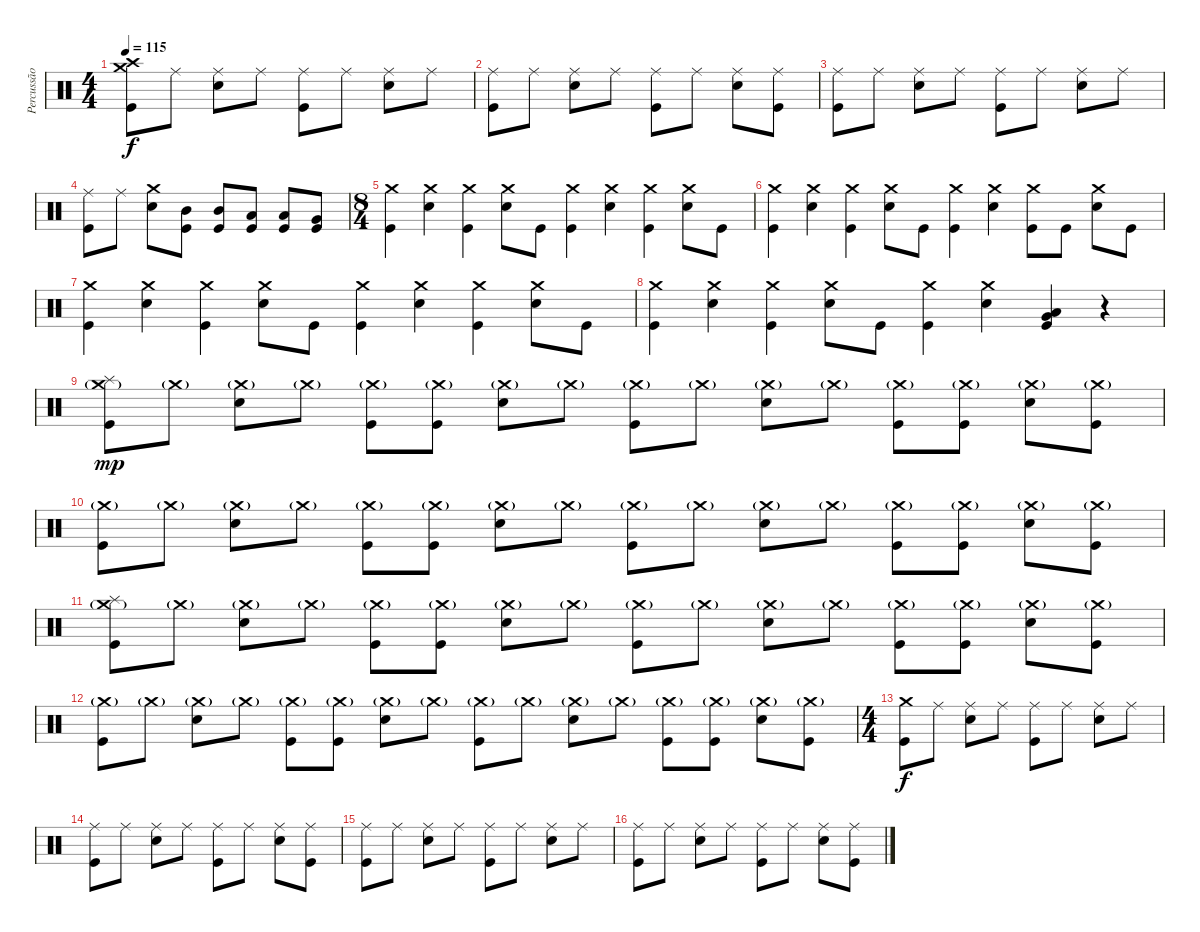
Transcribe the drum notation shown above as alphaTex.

\track ("Percussão" "Percussão") {instrument percussion}
\staff {score}
\articulation defaults
\ts (4 4)
\tempo 115
\clef neutral
\ks c
("Crash medium (hit)" "Crash high (hit)" "Kick (hit)").8{dy f} "Ride (middle)".8 ("Ride (middle)" "Electric Snare (hit)").8 "Ride (middle)".8 ("Ride (middle)" "Kick (hit)").8 "Ride (middle)".8 ("Ride (middle)" "Electric Snare (hit)").8 "Ride (middle)".8 |
("Ride (middle)" "Kick (hit)").8 "Ride (middle)".8 ("Ride (middle)" "Electric Snare (hit)").8 "Ride (middle)".8 ("Ride (middle)" "Kick (hit)").8 "Ride (middle)".8 ("Ride (middle)" "Electric Snare (hit)").8 ("Ride (middle)" "Kick (hit)").8 |
("Ride (middle)" "Kick (hit)").8 "Ride (middle)".8 ("Ride (middle)" "Electric Snare (hit)").8 "Ride (middle)".8 ("Ride (middle)" "Kick (hit)").8 "Ride (middle)".8 ("Ride (middle)" "Electric Snare (hit)").8 "Ride (middle)".8 |
("Ride (middle)" "Kick (hit)").8 "Ride (middle)".8 ("Crash medium (hit)" "Electric Snare (hit)").8 ("Mid Tom (hit)" "Kick (hit)").8 ("Mid Tom (hit)" "Kick (hit)").8 ("Low Tom (hit)" "Kick (hit)").8 ("Low Tom (hit)" "Kick (hit)").8 ("Very Low Tom (hit)" "Kick (hit)").8 |
\ts (8 4)
("Crash medium (hit)" "Kick (hit)").4 ("Crash medium (hit)" "Electric Snare (hit)").4 ("Crash medium (hit)" "Kick (hit)").4 ("Crash medium (hit)" "Electric Snare (hit)").8 "Kick (hit)".8 ("Crash medium (hit)" "Kick (hit)").4 ("Crash medium (hit)" "Electric Snare (hit)").4 ("Crash medium (hit)" "Kick (hit)").4 ("Crash medium (hit)" "Electric Snare (hit)").8 "Kick (hit)".8 |
("Crash medium (hit)" "Kick (hit)").4 ("Crash medium (hit)" "Electric Snare (hit)").4 ("Crash medium (hit)" "Kick (hit)").4 ("Crash medium (hit)" "Electric Snare (hit)").8 "Kick (hit)".8 ("Crash medium (hit)" "Kick (hit)").4 ("Crash medium (hit)" "Electric Snare (hit)").4 ("Crash medium (hit)" "Kick (hit)").8 "Kick (hit)".8 ("Crash medium (hit)" "Electric Snare (hit)").8 "Kick (hit)".8 |
("Crash medium (hit)" "Kick (hit)").4 ("Crash medium (hit)" "Electric Snare (hit)").4 ("Crash medium (hit)" "Kick (hit)").4 ("Crash medium (hit)" "Electric Snare (hit)").8 "Kick (hit)".8 ("Crash medium (hit)" "Kick (hit)").4 ("Crash medium (hit)" "Electric Snare (hit)").4 ("Crash medium (hit)" "Kick (hit)").4 ("Crash medium (hit)" "Electric Snare (hit)").8 "Kick (hit)".8 |
("Crash medium (hit)" "Kick (hit)").4 ("Crash medium (hit)" "Electric Snare (hit)").4 ("Crash medium (hit)" "Kick (hit)").4 ("Crash medium (hit)" "Electric Snare (hit)").8 "Kick (hit)".8 ("Crash medium (hit)" "Kick (hit)").4 ("Crash medium (hit)" "Electric Snare (hit)").4 ("Low Tom (hit)" "Very Low Tom (hit)" "Kick (hit)").4 r.4 |
("Splash (hit)" "Crash medium (hit)"{g} "Kick (hit)").8{dy mp} "Crash medium (hit)"{g}.8 ("Crash medium (hit)"{g} "Electric Snare (hit)").8 "Crash medium (hit)"{g}.8 ("Crash medium (hit)"{g} "Kick (hit)").8 ("Crash medium (hit)"{g} "Kick (hit)").8 ("Crash medium (hit)"{g} "Electric Snare (hit)").8 "Crash medium (hit)"{g}.8 ("Crash medium (hit)"{g} "Kick (hit)").8 "Crash medium (hit)"{g}.8 ("Crash medium (hit)"{g} "Electric Snare (hit)").8 "Crash medium (hit)"{g}.8 ("Crash medium (hit)"{g} "Kick (hit)").8 ("Crash medium (hit)"{g} "Kick (hit)").8 ("Crash medium (hit)"{g} "Electric Snare (hit)").8 ("Crash medium (hit)"{g} "Kick (hit)").8 |
("Crash medium (hit)"{g} "Kick (hit)").8 "Crash medium (hit)"{g}.8 ("Crash medium (hit)"{g} "Electric Snare (hit)").8 "Crash medium (hit)"{g}.8 ("Crash medium (hit)"{g} "Kick (hit)").8 ("Crash medium (hit)"{g} "Kick (hit)").8 ("Crash medium (hit)"{g} "Electric Snare (hit)").8 "Crash medium (hit)"{g}.8 ("Crash medium (hit)"{g} "Kick (hit)").8 "Crash medium (hit)"{g}.8 ("Crash medium (hit)"{g} "Electric Snare (hit)").8 "Crash medium (hit)"{g}.8 ("Crash medium (hit)"{g} "Kick (hit)").8 ("Crash medium (hit)"{g} "Kick (hit)").8 ("Crash medium (hit)"{g} "Electric Snare (hit)").8 ("Crash medium (hit)"{g} "Kick (hit)").8 |
("Splash (hit)" "Crash medium (hit)"{g} "Kick (hit)").8 "Crash medium (hit)"{g}.8 ("Crash medium (hit)"{g} "Electric Snare (hit)").8 "Crash medium (hit)"{g}.8 ("Crash medium (hit)"{g} "Kick (hit)").8 ("Crash medium (hit)"{g} "Kick (hit)").8 ("Crash medium (hit)"{g} "Electric Snare (hit)").8 "Crash medium (hit)"{g}.8 ("Crash medium (hit)"{g} "Kick (hit)").8 "Crash medium (hit)"{g}.8 ("Crash medium (hit)"{g} "Electric Snare (hit)").8 "Crash medium (hit)"{g}.8 ("Crash medium (hit)"{g} "Kick (hit)").8 ("Crash medium (hit)"{g} "Kick (hit)").8 ("Crash medium (hit)"{g} "Electric Snare (hit)").8 ("Crash medium (hit)"{g} "Kick (hit)").8 |
("Crash medium (hit)"{g} "Kick (hit)").8 "Crash medium (hit)"{g}.8 ("Crash medium (hit)"{g} "Electric Snare (hit)").8 "Crash medium (hit)"{g}.8 ("Crash medium (hit)"{g} "Kick (hit)").8 ("Crash medium (hit)"{g} "Kick (hit)").8 ("Crash medium (hit)"{g} "Electric Snare (hit)").8 "Crash medium (hit)"{g}.8 ("Crash medium (hit)"{g} "Kick (hit)").8 "Crash medium (hit)"{g}.8 ("Crash medium (hit)"{g} "Electric Snare (hit)").8 "Crash medium (hit)"{g}.8 ("Crash medium (hit)"{g} "Kick (hit)").8 ("Crash medium (hit)"{g} "Kick (hit)").8 ("Crash medium (hit)"{g} "Electric Snare (hit)").8 ("Crash medium (hit)"{g} "Kick (hit)").8 |
\ts (4 4)
("Crash medium (hit)" "Kick (hit)").8{dy f} "Ride (middle)".8 ("Ride (middle)" "Electric Snare (hit)").8 "Ride (middle)".8 ("Ride (middle)" "Kick (hit)").8 "Ride (middle)".8 ("Ride (middle)" "Electric Snare (hit)").8 "Ride (middle)".8 |
("Ride (middle)" "Kick (hit)").8 "Ride (middle)".8 ("Ride (middle)" "Electric Snare (hit)").8 "Ride (middle)".8 ("Ride (middle)" "Kick (hit)").8 "Ride (middle)".8 ("Ride (middle)" "Electric Snare (hit)").8 ("Ride (middle)" "Kick (hit)").8 |
("Ride (middle)" "Kick (hit)").8 "Ride (middle)".8 ("Ride (middle)" "Electric Snare (hit)").8 "Ride (middle)".8 ("Ride (middle)" "Kick (hit)").8 "Ride (middle)".8 ("Ride (middle)" "Electric Snare (hit)").8 "Ride (middle)".8 |
("Ride (middle)" "Kick (hit)").8 "Ride (middle)".8 ("Ride (middle)" "Electric Snare (hit)").8 "Ride (middle)".8 ("Ride (middle)" "Kick (hit)").8 "Ride (middle)".8 ("Ride (middle)" "Electric Snare (hit)").8 ("Ride (middle)" "Kick (hit)").8
